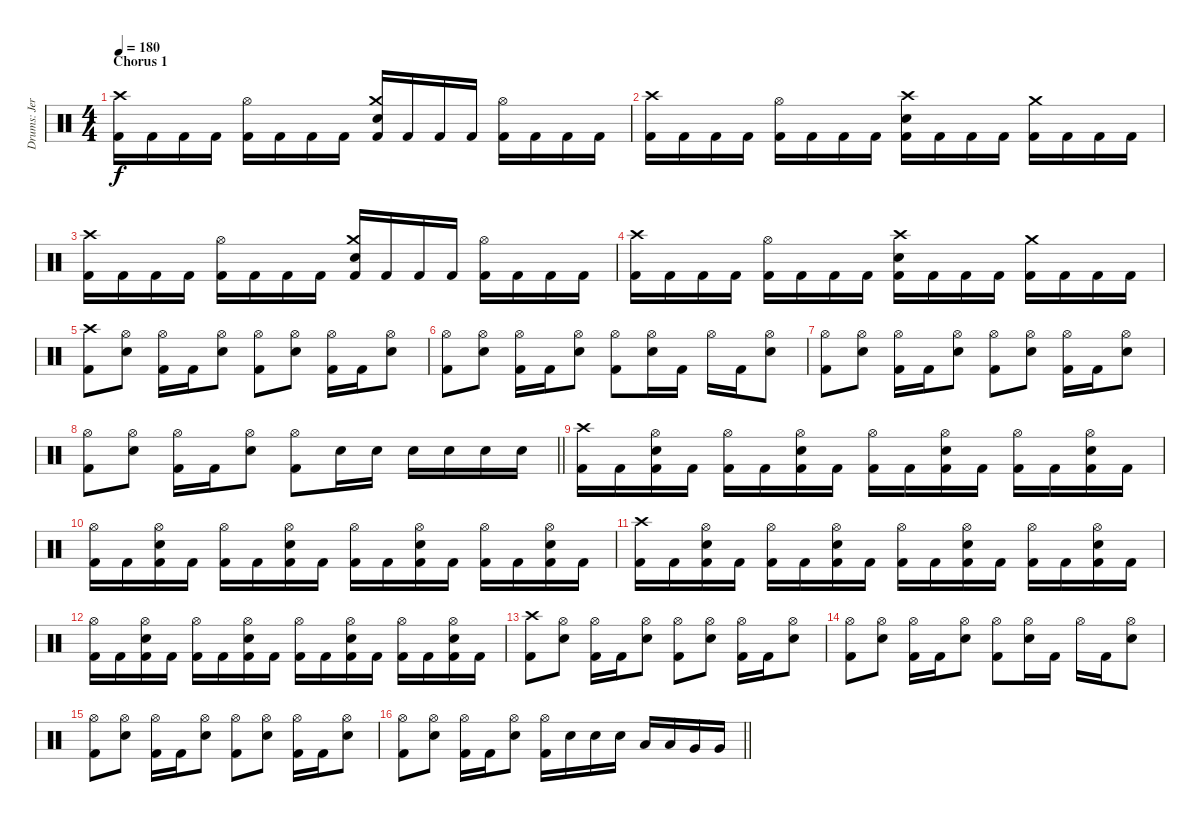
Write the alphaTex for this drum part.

\track ("Drums: Jere Luokkamäki" "Drums: Jer") {instrument percussion}
\staff {score}
\articulation defaults
\ts (4 4)
\section ("" "Chorus 1")
\tempo 180
\clef neutral
\ks aminor
("Crash high (hit)" "Kick (hit) 2").16{dy f} "Kick (hit) 2".16 "Kick (hit) 2".16 "Kick (hit) 2".16 ("Hi-Hat (open)" "Kick (hit) 2").16 "Kick (hit) 2".16 "Kick (hit) 2".16 "Kick (hit) 2".16 ("Crash medium (hit)" "Electric Snare (hit)" "Kick (hit) 2").16 "Kick (hit) 2".16 "Kick (hit) 2".16 "Kick (hit) 2".16 ("Hi-Hat (open)" "Kick (hit) 2").16 "Kick (hit) 2".16 "Kick (hit) 2".16 "Kick (hit) 2".16 |
("Crash high (hit)" "Kick (hit) 2").16 "Kick (hit) 2".16 "Kick (hit) 2".16 "Kick (hit) 2".16 ("Hi-Hat (open)" "Kick (hit) 2").16 "Kick (hit) 2".16 "Kick (hit) 2".16 "Kick (hit) 2".16 ("Crash high (hit)" "Electric Snare (hit)" "Kick (hit) 2").16 "Kick (hit) 2".16 "Kick (hit) 2".16 "Kick (hit) 2".16 ("Crash medium (hit)" "Kick (hit) 2").16 "Kick (hit) 2".16 "Kick (hit) 2".16 "Kick (hit) 2".16 |
("Crash high (hit)" "Kick (hit) 2").16 "Kick (hit) 2".16 "Kick (hit) 2".16 "Kick (hit) 2".16 ("Hi-Hat (open)" "Kick (hit) 2").16 "Kick (hit) 2".16 "Kick (hit) 2".16 "Kick (hit) 2".16 ("Crash medium (hit)" "Electric Snare (hit)" "Kick (hit) 2").16 "Kick (hit) 2".16 "Kick (hit) 2".16 "Kick (hit) 2".16 ("Hi-Hat (open)" "Kick (hit) 2").16 "Kick (hit) 2".16 "Kick (hit) 2".16 "Kick (hit) 2".16 |
("Crash high (hit)" "Kick (hit) 2").16 "Kick (hit) 2".16 "Kick (hit) 2".16 "Kick (hit) 2".16 ("Hi-Hat (open)" "Kick (hit) 2").16 "Kick (hit) 2".16 "Kick (hit) 2".16 "Kick (hit) 2".16 ("Crash high (hit)" "Electric Snare (hit)" "Kick (hit) 2").16 "Kick (hit) 2".16 "Kick (hit) 2".16 "Kick (hit) 2".16 ("Crash medium (hit)" "Kick (hit) 2").16 "Kick (hit) 2".16 "Kick (hit) 2".16 "Kick (hit) 2".16 |
("Crash high (hit)" "Kick (hit) 2").8 ("Hi-Hat (open)" "Electric Snare (hit)").8 ("Hi-Hat (open)" "Kick (hit) 2").16 "Kick (hit) 2".16 ("Hi-Hat (open)" "Electric Snare (hit)").8 ("Hi-Hat (open)" "Kick (hit) 2").8 ("Hi-Hat (open)" "Electric Snare (hit)").8 ("Hi-Hat (open)" "Kick (hit) 2").16 "Kick (hit) 2".16 ("Hi-Hat (open)" "Electric Snare (hit)").8 |
("Hi-Hat (open)" "Kick (hit) 2").8 ("Hi-Hat (open)" "Electric Snare (hit)").8 ("Hi-Hat (open)" "Kick (hit) 2").16 "Kick (hit) 2".16 ("Hi-Hat (open)" "Electric Snare (hit)").8 ("Hi-Hat (open)" "Kick (hit) 2").8 ("Hi-Hat (open)" "Electric Snare (hit)").16 "Kick (hit) 2".16 "Hi-Hat (open)".16 "Kick (hit) 2".16 ("Hi-Hat (open)" "Electric Snare (hit)").8 |
("Hi-Hat (open)" "Kick (hit) 2").8 ("Hi-Hat (open)" "Electric Snare (hit)").8 ("Hi-Hat (open)" "Kick (hit) 2").16 "Kick (hit) 2".16 ("Hi-Hat (open)" "Electric Snare (hit)").8 ("Hi-Hat (open)" "Kick (hit) 2").8 ("Hi-Hat (open)" "Electric Snare (hit)").8 ("Hi-Hat (open)" "Kick (hit) 2").16 "Kick (hit) 2".16 ("Hi-Hat (open)" "Electric Snare (hit)").8 |
\barLineRight lightlight
("Hi-Hat (open)" "Kick (hit) 2").8 ("Hi-Hat (open)" "Electric Snare (hit)").8 ("Hi-Hat (open)" "Kick (hit) 2").16 "Kick (hit) 2".16 ("Hi-Hat (open)" "Electric Snare (hit)").8 ("Hi-Hat (open)" "Kick (hit) 2").8 "Electric Snare (hit)".16 "Electric Snare (hit)".16 "Electric Snare (hit)".16 "Electric Snare (hit)".16 "Electric Snare (hit)".16 "Electric Snare (hit)".16 |
("Crash high (hit)" "Kick (hit) 2").16 "Kick (hit) 2".16 ("Hi-Hat (open)" "Electric Snare (hit)" "Kick (hit) 2").16 "Kick (hit) 2".16 ("Hi-Hat (open)" "Kick (hit) 2").16 "Kick (hit) 2".16 ("Hi-Hat (open)" "Electric Snare (hit)" "Kick (hit) 2").16 "Kick (hit) 2".16 ("Hi-Hat (open)" "Kick (hit) 2").16 "Kick (hit) 2".16 ("Hi-Hat (open)" "Electric Snare (hit)" "Kick (hit) 2").16 "Kick (hit) 2".16 ("Hi-Hat (open)" "Kick (hit) 2").16 "Kick (hit) 2".16 ("Hi-Hat (open)" "Electric Snare (hit)" "Kick (hit) 2").16 "Kick (hit) 2".16 |
("Hi-Hat (open)" "Kick (hit) 2").16 "Kick (hit) 2".16 ("Hi-Hat (open)" "Electric Snare (hit)" "Kick (hit) 2").16 "Kick (hit) 2".16 ("Hi-Hat (open)" "Kick (hit) 2").16 "Kick (hit) 2".16 ("Hi-Hat (open)" "Electric Snare (hit)" "Kick (hit) 2").16 "Kick (hit) 2".16 ("Hi-Hat (open)" "Kick (hit) 2").16 "Kick (hit) 2".16 ("Hi-Hat (open)" "Electric Snare (hit)" "Kick (hit) 2").16 "Kick (hit) 2".16 ("Hi-Hat (open)" "Kick (hit) 2").16 "Kick (hit) 2".16 ("Hi-Hat (open)" "Electric Snare (hit)" "Kick (hit) 2").16 "Kick (hit) 2".16 |
("Crash high (hit)" "Kick (hit) 2").16 "Kick (hit) 2".16 ("Hi-Hat (open)" "Electric Snare (hit)" "Kick (hit) 2").16 "Kick (hit) 2".16 ("Hi-Hat (open)" "Kick (hit) 2").16 "Kick (hit) 2".16 ("Hi-Hat (open)" "Electric Snare (hit)" "Kick (hit) 2").16 "Kick (hit) 2".16 ("Hi-Hat (open)" "Kick (hit) 2").16 "Kick (hit) 2".16 ("Hi-Hat (open)" "Electric Snare (hit)" "Kick (hit) 2").16 "Kick (hit) 2".16 ("Hi-Hat (open)" "Kick (hit) 2").16 "Kick (hit) 2".16 ("Hi-Hat (open)" "Electric Snare (hit)" "Kick (hit) 2").16 "Kick (hit) 2".16 |
("Hi-Hat (open)" "Kick (hit) 2").16 "Kick (hit) 2".16 ("Hi-Hat (open)" "Electric Snare (hit)" "Kick (hit) 2").16 "Kick (hit) 2".16 ("Hi-Hat (open)" "Kick (hit) 2").16 "Kick (hit) 2".16 ("Hi-Hat (open)" "Electric Snare (hit)" "Kick (hit) 2").16 "Kick (hit) 2".16 ("Hi-Hat (open)" "Kick (hit) 2").16 "Kick (hit) 2".16 ("Hi-Hat (open)" "Electric Snare (hit)" "Kick (hit) 2").16 "Kick (hit) 2".16 ("Hi-Hat (open)" "Kick (hit) 2").16 "Kick (hit) 2".16 ("Hi-Hat (open)" "Electric Snare (hit)" "Kick (hit) 2").16 "Kick (hit) 2".16 |
("Crash high (hit)" "Kick (hit) 2").8 ("Hi-Hat (open)" "Electric Snare (hit)").8 ("Hi-Hat (open)" "Kick (hit) 2").16 "Kick (hit) 2".16 ("Hi-Hat (open)" "Electric Snare (hit)").8 ("Hi-Hat (open)" "Kick (hit) 2").8 ("Hi-Hat (open)" "Electric Snare (hit)").8 ("Hi-Hat (open)" "Kick (hit) 2").16 "Kick (hit) 2".16 ("Hi-Hat (open)" "Electric Snare (hit)").8 |
("Hi-Hat (open)" "Kick (hit) 2").8 ("Hi-Hat (open)" "Electric Snare (hit)").8 ("Hi-Hat (open)" "Kick (hit) 2").16 "Kick (hit) 2".16 ("Hi-Hat (open)" "Electric Snare (hit)").8 ("Hi-Hat (open)" "Kick (hit) 2").8 ("Hi-Hat (open)" "Electric Snare (hit)").16 "Kick (hit) 2".16 "Hi-Hat (open)".16 "Kick (hit) 2".16 ("Hi-Hat (open)" "Electric Snare (hit)").8 |
("Hi-Hat (open)" "Kick (hit) 2").8 ("Hi-Hat (open)" "Electric Snare (hit)").8 ("Hi-Hat (open)" "Kick (hit) 2").16 "Kick (hit) 2".16 ("Hi-Hat (open)" "Electric Snare (hit)").8 ("Hi-Hat (open)" "Kick (hit) 2").8 ("Hi-Hat (open)" "Electric Snare (hit)").8 ("Hi-Hat (open)" "Kick (hit) 2").16 "Kick (hit) 2".16 ("Hi-Hat (open)" "Electric Snare (hit)").8 |
\barLineRight lightlight
("Hi-Hat (open)" "Kick (hit) 2").8 ("Hi-Hat (open)" "Electric Snare (hit)").8 ("Hi-Hat (open)" "Kick (hit) 2").16 "Kick (hit) 2".16 ("Hi-Hat (open)" "Electric Snare (hit)").8 ("Hi-Hat (open)" "Kick (hit) 2").16 "Electric Snare (hit)".16 "Electric Snare (hit)".16 "Electric Snare (hit)".16 "Low Tom (hit)".16 "Low Tom (hit)".16 "Very Low Tom (hit)".16 "Very Low Tom (hit)".16
